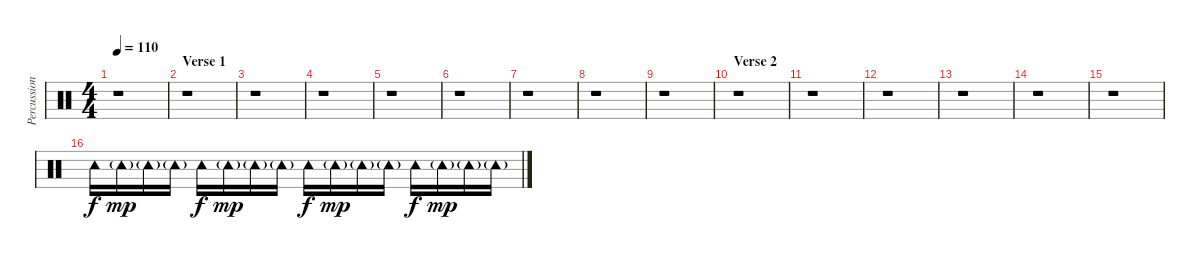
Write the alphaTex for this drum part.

\track ("Percussion" "Percussion") {instrument percussion}
\staff {score}
\articulation defaults
\ts (4 4)
\tempo 110
\clef neutral
\ks c
r.1{dy f} |
\section ("" "Verse 1")
r.1 |
r.1 |
r.1 |
r.1 |
r.1 |
r.1 |
r.1 |
r.1 |
\section ("" "Verse 2")
r.1 |
r.1 |
r.1 |
r.1 |
r.1 |
r.1 |
"Tambourine (hit)".16 "Tambourine (hit)"{g}.16{dy mp} "Tambourine (hit)"{g}.16 "Tambourine (hit)"{g}.16 "Tambourine (hit)".16{dy f} "Tambourine (hit)"{g}.16{dy mp} "Tambourine (hit)"{g}.16 "Tambourine (hit)"{g}.16 "Tambourine (hit)".16{dy f} "Tambourine (hit)"{g}.16{dy mp} "Tambourine (hit)"{g}.16 "Tambourine (hit)"{g}.16 "Tambourine (hit)".16{dy f} "Tambourine (hit)"{g}.16{dy mp} "Tambourine (hit)"{g}.16 "Tambourine (hit)"{g}.16
